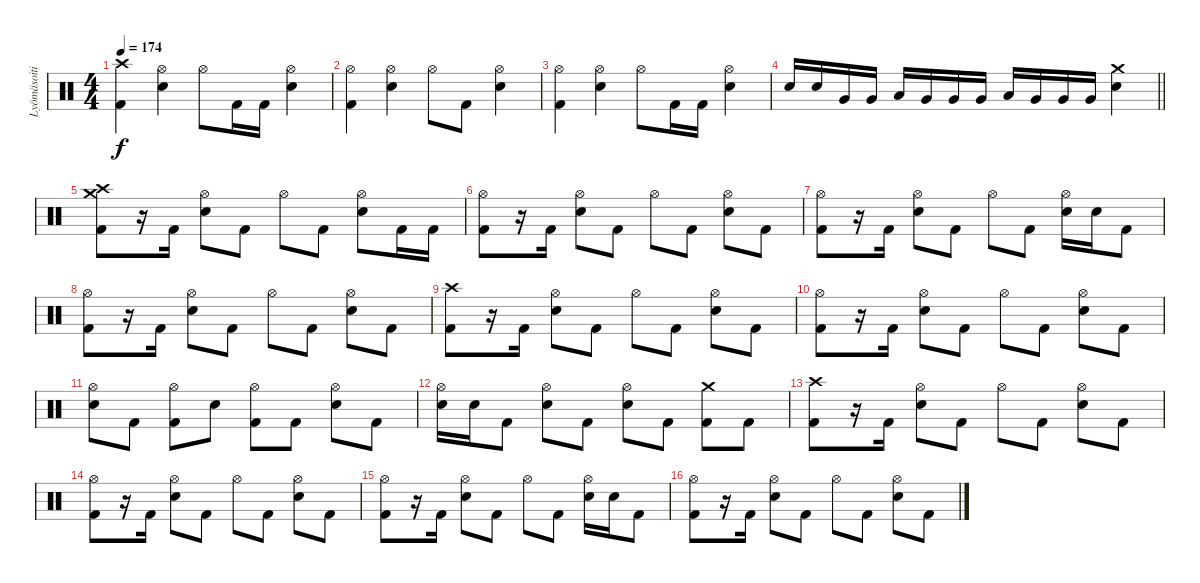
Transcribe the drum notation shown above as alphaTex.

\track ("Lyömäsoitin" "Lyömäsoiti") {instrument percussion}
\staff {score}
\articulation defaults
\ts (4 4)
\tempo 174
\clef neutral
\ks c
("Crash high (hit)" "Kick (hit) 2").4{dy f} ("Hi-Hat (open)" "Electric Snare (hit)").4 "Hi-Hat (open)".8 "Kick (hit) 2".16 "Kick (hit) 2".16 ("Hi-Hat (open)" "Electric Snare (hit)").4 |
("Hi-Hat (open)" "Kick (hit) 2").4 ("Hi-Hat (open)" "Electric Snare (hit)").4 "Hi-Hat (open)".8 "Kick (hit) 2".8 ("Hi-Hat (open)" "Electric Snare (hit)").4 |
("Hi-Hat (open)" "Kick (hit) 2").4 ("Hi-Hat (open)" "Electric Snare (hit)").4 "Hi-Hat (open)".8 "Kick (hit) 2".16 "Kick (hit) 2".16 ("Hi-Hat (open)" "Electric Snare (hit)").4 |
\barLineRight lightlight "Electric Snare (hit)".16 "Electric Snare (hit)".16 "Very Low Tom (hit)".16 "Very Low Tom (hit)".16 "Low Tom (hit)".16 "Very Low Tom (hit)".16 "Very Low Tom (hit)".16 "Very Low Tom (hit)".16 "Low Tom (hit)".16 "Very Low Tom (hit)".16 "Very Low Tom (hit)".16 "Very Low Tom (hit)".16
("Crash medium (hit)" "Electric Snare (hit)").4 |
\section ("" "")
("Crash medium (hit)" "Crash high (hit)" "Kick (hit) 2").8 r.16 "Kick (hit) 2".16 ("Hi-Hat (open)" "Electric Snare (hit)").8 "Kick (hit) 2".8 "Hi-Hat (open)".8 "Kick (hit) 2".8 ("Hi-Hat (open)" "Electric Snare (hit)").8 "Kick (hit) 2".16 "Kick (hit) 2".16 |
("Hi-Hat (open)" "Kick (hit) 2").8 r.16 "Kick (hit) 2".16 ("Hi-Hat (open)" "Electric Snare (hit)").8 "Kick (hit) 2".8 "Hi-Hat (open)".8 "Kick (hit) 2".8 ("Hi-Hat (open)" "Electric Snare (hit)").8 "Kick (hit) 2".8 |
("Hi-Hat (open)" "Kick (hit) 2").8 r.16 "Kick (hit) 2".16 ("Hi-Hat (open)" "Electric Snare (hit)").8 "Kick (hit) 2".8 "Hi-Hat (open)".8 "Kick (hit) 2".8 ("Hi-Hat (open)" "Electric Snare (hit)").16 "Electric Snare (hit)".16 "Kick (hit) 2".8 |
("Hi-Hat (open)" "Kick (hit) 2").8 r.16 "Kick (hit) 2".16 ("Hi-Hat (open)" "Electric Snare (hit)").8 "Kick (hit) 2".8 "Hi-Hat (open)".8 "Kick (hit) 2".8 ("Hi-Hat (open)" "Electric Snare (hit)").8 "Kick (hit) 2".8 |
("Crash high (hit)" "Kick (hit) 2").8 r.16 "Kick (hit) 2".16 ("Hi-Hat (open)" "Electric Snare (hit)").8 "Kick (hit) 2".8 "Hi-Hat (open)".8 "Kick (hit) 2".8 ("Hi-Hat (open)" "Electric Snare (hit)").8 "Kick (hit) 2".8 |
("Hi-Hat (open)" "Kick (hit) 2").8 r.16 "Kick (hit) 2".16 ("Hi-Hat (open)" "Electric Snare (hit)").8 "Kick (hit) 2".8 "Hi-Hat (open)".8 "Kick (hit) 2".8 ("Hi-Hat (open)" "Electric Snare (hit)").8 "Kick (hit) 2".8 |
("Hi-Hat (open)" "Electric Snare (hit)").8 "Kick (hit) 2".8 ("Hi-Hat (open)" "Kick (hit) 2").8 "Electric Snare (hit)".8 ("Hi-Hat (open)" "Kick (hit) 2").8 "Kick (hit) 2".8 ("Hi-Hat (open)" "Electric Snare (hit)").8 "Kick (hit) 2".8 |
("Hi-Hat (open)" "Electric Snare (hit)").16 "Electric Snare (hit)".16 "Kick (hit) 2".8 ("Hi-Hat (open)" "Electric Snare (hit)").8 "Kick (hit) 2".8 ("Hi-Hat (open)" "Electric Snare (hit)").8 "Kick (hit) 2".8 ("Crash medium (hit)" "Kick (hit) 2").8 "Kick (hit) 2".8 |
("Crash high (hit)" "Kick (hit) 2").8 r.16 "Kick (hit) 2".16 ("Hi-Hat (open)" "Electric Snare (hit)").8 "Kick (hit) 2".8 "Hi-Hat (open)".8 "Kick (hit) 2".8 ("Hi-Hat (open)" "Electric Snare (hit)").8 "Kick (hit) 2".8 |
("Hi-Hat (open)" "Kick (hit) 2").8 r.16 "Kick (hit) 2".16 ("Hi-Hat (open)" "Electric Snare (hit)").8 "Kick (hit) 2".8 "Hi-Hat (open)".8 "Kick (hit) 2".8 ("Hi-Hat (open)" "Electric Snare (hit)").8 "Kick (hit) 2".8 |
("Hi-Hat (open)" "Kick (hit) 2").8 r.16 "Kick (hit) 2".16 ("Hi-Hat (open)" "Electric Snare (hit)").8 "Kick (hit) 2".8 "Hi-Hat (open)".8 "Kick (hit) 2".8 ("Hi-Hat (open)" "Electric Snare (hit)").16 "Electric Snare (hit)".16 "Kick (hit) 2".8 |
("Hi-Hat (open)" "Kick (hit) 2").8 r.16 "Kick (hit) 2".16 ("Hi-Hat (open)" "Electric Snare (hit)").8 "Kick (hit) 2".8 "Hi-Hat (open)".8 "Kick (hit) 2".8 ("Hi-Hat (open)" "Electric Snare (hit)").8 "Kick (hit) 2".8
